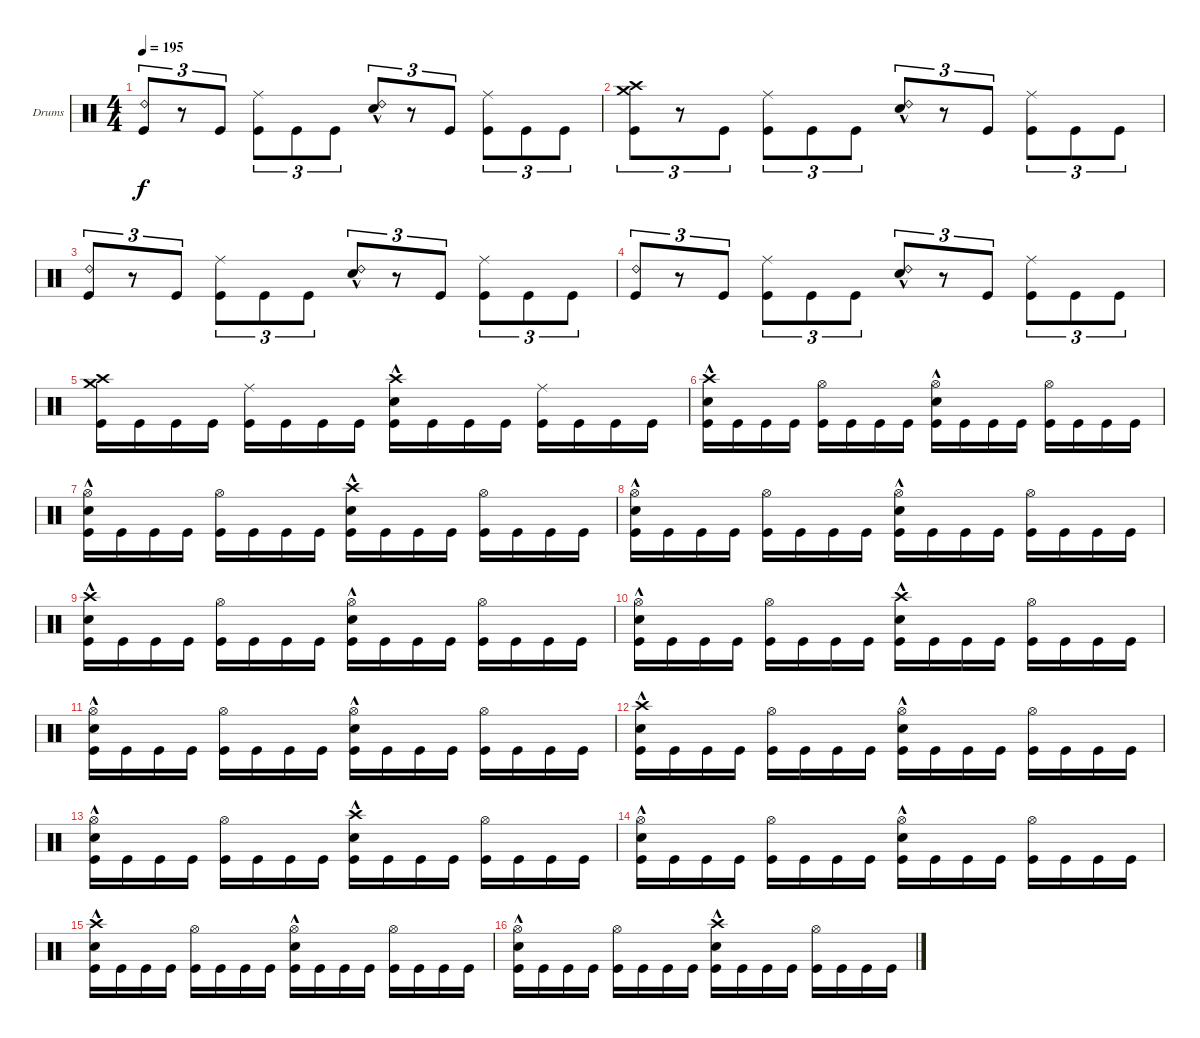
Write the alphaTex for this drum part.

\defaultSystemsLayout 4
\bracketExtendMode groupsimilarinstruments
\firstSystemTrackNameOrientation horizontal
\otherSystemsTrackNameOrientation horizontal
\track ("Drumkit" "Drums") {instrument percussion}
\staff {score}
\articulation defaults
\ts (4 4)
\tempo 195
\clef neutral
\ks c
("Kick (hit)" "Ride (bell) 2").8{tu (3 2) dy f} r.8{tu (3 2)} "Kick (hit)".8{tu (3 2)} ("Kick (hit)" "Ride (middle)").8{tu (3 2)} "Kick (hit)".8{tu (3 2)} "Kick (hit)".8{tu (3 2)} ("Snare (hit) 2"{hac} "Ride (bell) 2").8{tu (3 2)} r.8{tu (3 2)} "Kick (hit)".8{tu (3 2)} ("Kick (hit)" "Ride (middle)").8{tu (3 2)} "Kick (hit)".8{tu (3 2)} "Kick (hit)".8{tu (3 2)} |
("Kick (hit)" "Crash medium (hit)" "Crash high (hit)").8{tu (3 2)} r.8{tu (3 2)} "Kick (hit)".8{tu (3 2)} ("Kick (hit)" "Ride (middle)").8{tu (3 2)} "Kick (hit)".8{tu (3 2)} "Kick (hit)".8{tu (3 2)} ("Snare (hit) 2"{hac} "Ride (bell) 2").8{tu (3 2)} r.8{tu (3 2)} "Kick (hit)".8{tu (3 2)} ("Kick (hit)" "Ride (middle)").8{tu (3 2)} "Kick (hit)".8{tu (3 2)} "Kick (hit)".8{tu (3 2)} |
("Kick (hit)" "Ride (bell) 2").8{tu (3 2)} r.8{tu (3 2)} "Kick (hit)".8{tu (3 2)} ("Kick (hit)" "Ride (middle)").8{tu (3 2)} "Kick (hit)".8{tu (3 2)} "Kick (hit)".8{tu (3 2)} ("Snare (hit) 2"{hac} "Ride (bell) 2").8{tu (3 2)} r.8{tu (3 2)} "Kick (hit)".8{tu (3 2)} ("Kick (hit)" "Ride (middle)").8{tu (3 2)} "Kick (hit)".8{tu (3 2)} "Kick (hit)".8{tu (3 2)} |
("Kick (hit)" "Ride (bell) 2").8{tu (3 2)} r.8{tu (3 2)} "Kick (hit)".8{tu (3 2)} ("Kick (hit)" "Ride (middle)").8{tu (3 2)} "Kick (hit)".8{tu (3 2)} "Kick (hit)".8{tu (3 2)} ("Snare (hit) 2"{hac} "Ride (bell) 2").8{tu (3 2)} r.8{tu (3 2)} "Kick (hit)".8{tu (3 2)} ("Kick (hit)" "Ride (middle)").8{tu (3 2)} "Kick (hit)".8{tu (3 2)} "Kick (hit)".8{tu (3 2)} |
("Kick (hit)" "Crash medium (hit)" "Crash high (hit)").16 "Kick (hit)".16 "Kick (hit)".16 "Kick (hit)".16 ("Kick (hit)" "Ride (middle)").16 "Kick (hit)".16 "Kick (hit)".16 "Kick (hit)".16 ("Kick (hit)" "Snare (hit) 2"{hac} "Crash high (hit)").16 "Kick (hit)".16 "Kick (hit)".16 "Kick (hit)".16 ("Kick (hit)" "Ride (middle)").16 "Kick (hit)".16 "Kick (hit)".16 "Kick (hit)".16 |
("Snare (hit) 2"{hac} "Crash high (hit)" "Kick (hit)").16 "Kick (hit)".16 "Kick (hit)".16 "Kick (hit)".16 ("Kick (hit)" "Hi-Hat (open)").16 "Kick (hit)".16 "Kick (hit)".16 "Kick (hit)".16 ("Kick (hit)" "Hi-Hat (open)" "Snare (hit) 2"{hac}).16 "Kick (hit)".16 "Kick (hit)".16 "Kick (hit)".16 ("Kick (hit)" "Hi-Hat (open)").16 "Kick (hit)".16 "Kick (hit)".16 "Kick (hit)".16 |
("Kick (hit)" "Snare (hit) 2"{hac} "Hi-Hat (open)").16 "Kick (hit)".16 "Kick (hit)".16 "Kick (hit)".16 ("Kick (hit)" "Hi-Hat (open)").16 "Kick (hit)".16 "Kick (hit)".16 "Kick (hit)".16 ("Kick (hit)" "Snare (hit) 2"{hac} "Crash high (hit)").16 "Kick (hit)".16 "Kick (hit)".16 "Kick (hit)".16 ("Kick (hit)" "Hi-Hat (open)").16 "Kick (hit)".16 "Kick (hit)".16 "Kick (hit)".16 |
("Kick (hit)" "Snare (hit) 2"{hac} "Hi-Hat (open)").16 "Kick (hit)".16 "Kick (hit)".16 "Kick (hit)".16 ("Kick (hit)" "Hi-Hat (open)").16 "Kick (hit)".16 "Kick (hit)".16 "Kick (hit)".16 ("Kick (hit)" "Snare (hit) 2"{hac} "Hi-Hat (open)").16 "Kick (hit)".16 "Kick (hit)".16 "Kick (hit)".16 ("Kick (hit)" "Hi-Hat (open)").16 "Kick (hit)".16 "Kick (hit)".16 "Kick (hit)".16 |
("Kick (hit)" "Snare (hit) 2"{hac} "Crash high (hit)").16 "Kick (hit)".16 "Kick (hit)".16 "Kick (hit)".16 ("Kick (hit)" "Hi-Hat (open)").16 "Kick (hit)".16 "Kick (hit)".16 "Kick (hit)".16 ("Kick (hit)" "Hi-Hat (open)" "Snare (hit) 2"{hac}).16 "Kick (hit)".16 "Kick (hit)".16 "Kick (hit)".16 ("Kick (hit)" "Hi-Hat (open)").16 "Kick (hit)".16 "Kick (hit)".16 "Kick (hit)".16 |
("Kick (hit)" "Snare (hit) 2"{hac} "Hi-Hat (open)").16 "Kick (hit)".16 "Kick (hit)".16 "Kick (hit)".16 ("Kick (hit)" "Hi-Hat (open)").16 "Kick (hit)".16 "Kick (hit)".16 "Kick (hit)".16 ("Kick (hit)" "Snare (hit) 2"{hac} "Crash high (hit)").16 "Kick (hit)".16 "Kick (hit)".16 "Kick (hit)".16 ("Kick (hit)" "Hi-Hat (open)").16 "Kick (hit)".16 "Kick (hit)".16 "Kick (hit)".16 |
("Kick (hit)" "Snare (hit) 2"{hac} "Hi-Hat (open)").16 "Kick (hit)".16 "Kick (hit)".16 "Kick (hit)".16 ("Kick (hit)" "Hi-Hat (open)").16 "Kick (hit)".16 "Kick (hit)".16 "Kick (hit)".16 ("Kick (hit)" "Snare (hit) 2"{hac} "Hi-Hat (open)").16 "Kick (hit)".16 "Kick (hit)".16 "Kick (hit)".16 ("Kick (hit)" "Hi-Hat (open)").16 "Kick (hit)".16 "Kick (hit)".16 "Kick (hit)".16 |
("Kick (hit)" "Snare (hit) 2"{hac} "Crash high (hit)").16 "Kick (hit)".16 "Kick (hit)".16 "Kick (hit)".16 ("Kick (hit)" "Hi-Hat (open)").16 "Kick (hit)".16 "Kick (hit)".16 "Kick (hit)".16 ("Kick (hit)" "Hi-Hat (open)" "Snare (hit) 2"{hac}).16 "Kick (hit)".16 "Kick (hit)".16 "Kick (hit)".16 ("Kick (hit)" "Hi-Hat (open)").16 "Kick (hit)".16 "Kick (hit)".16 "Kick (hit)".16 |
("Kick (hit)" "Snare (hit) 2"{hac} "Hi-Hat (open)").16 "Kick (hit)".16 "Kick (hit)".16 "Kick (hit)".16 ("Kick (hit)" "Hi-Hat (open)").16 "Kick (hit)".16 "Kick (hit)".16 "Kick (hit)".16 ("Kick (hit)" "Snare (hit) 2"{hac} "Crash high (hit)").16 "Kick (hit)".16 "Kick (hit)".16 "Kick (hit)".16 ("Kick (hit)" "Hi-Hat (open)").16 "Kick (hit)".16 "Kick (hit)".16 "Kick (hit)".16 |
("Kick (hit)" "Snare (hit) 2"{hac} "Hi-Hat (open)").16 "Kick (hit)".16 "Kick (hit)".16 "Kick (hit)".16 ("Kick (hit)" "Hi-Hat (open)").16 "Kick (hit)".16 "Kick (hit)".16 "Kick (hit)".16 ("Kick (hit)" "Snare (hit) 2"{hac} "Hi-Hat (open)").16 "Kick (hit)".16 "Kick (hit)".16 "Kick (hit)".16 ("Kick (hit)" "Hi-Hat (open)").16 "Kick (hit)".16 "Kick (hit)".16 "Kick (hit)".16 |
("Kick (hit)" "Snare (hit) 2"{hac} "Crash high (hit)").16 "Kick (hit)".16 "Kick (hit)".16 "Kick (hit)".16 ("Kick (hit)" "Hi-Hat (open)").16 "Kick (hit)".16 "Kick (hit)".16 "Kick (hit)".16 ("Kick (hit)" "Hi-Hat (open)" "Snare (hit) 2"{hac}).16 "Kick (hit)".16 "Kick (hit)".16 "Kick (hit)".16 ("Kick (hit)" "Hi-Hat (open)").16 "Kick (hit)".16 "Kick (hit)".16 "Kick (hit)".16 |
("Kick (hit)" "Snare (hit) 2"{hac} "Hi-Hat (open)").16 "Kick (hit)".16 "Kick (hit)".16 "Kick (hit)".16 ("Kick (hit)" "Hi-Hat (open)").16 "Kick (hit)".16 "Kick (hit)".16 "Kick (hit)".16 ("Kick (hit)" "Snare (hit) 2"{hac} "Crash high (hit)").16 "Kick (hit)".16 "Kick (hit)".16 "Kick (hit)".16 ("Kick (hit)" "Hi-Hat (open)").16 "Kick (hit)".16 "Kick (hit)".16 "Kick (hit)".16
